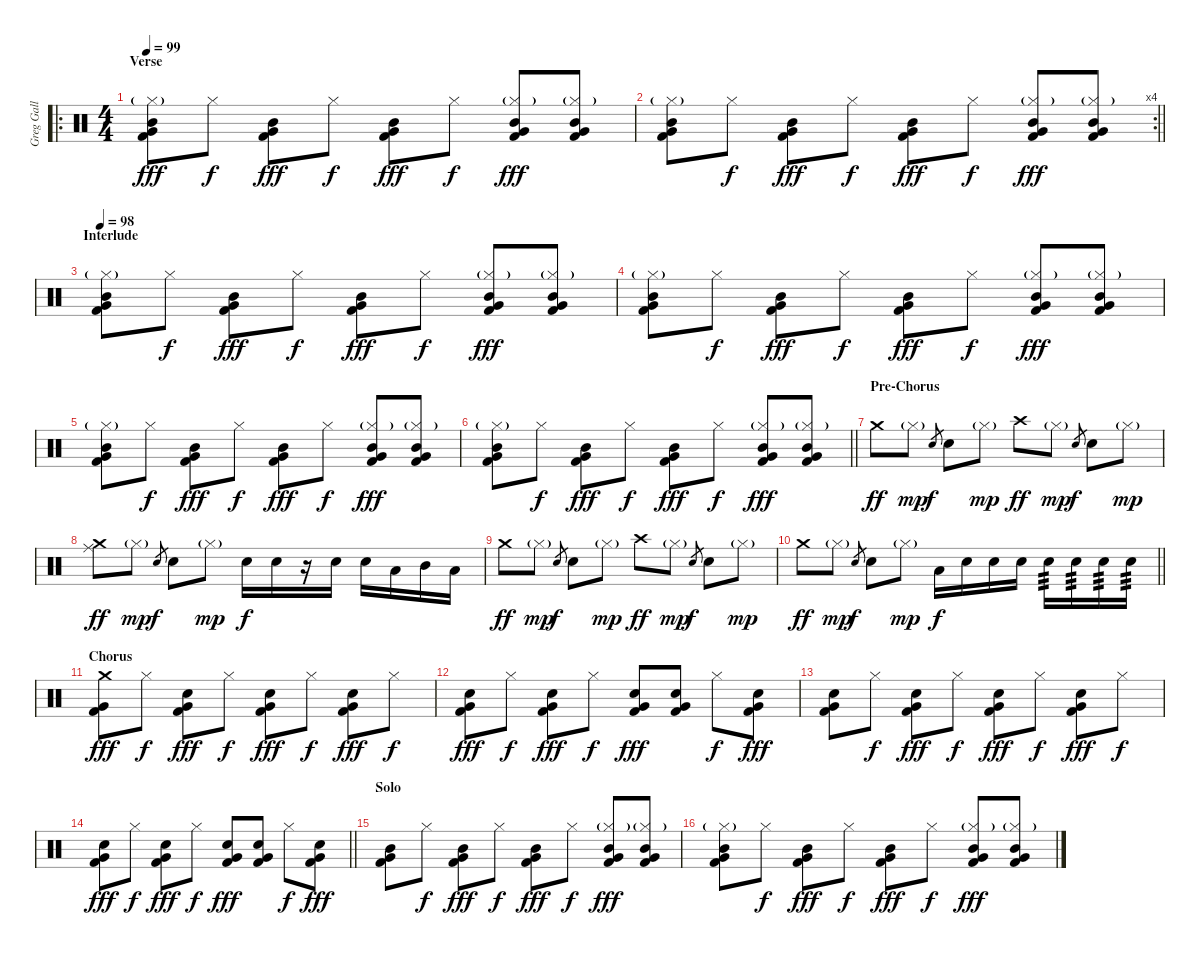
\track ("Greg Gall" "Greg Gall") {instrument percussion}
\staff {score}
\articulation defaults
\ro
\ts (4 4)
\section ("" "Verse")
\tempo 99
\clef neutral
\ks c
("Mid Tom (hit)" "Hi-Hat (closed)"{g} "Very Low Tom (hit)" "Kick (hit) 2").8{dy fff} "Hi-Hat (closed)".8{dy f} ("Mid Tom (hit)" "Very Low Tom (hit)" "Kick (hit) 2").8{dy fff} "Hi-Hat (closed)".8{dy f} ("Mid Tom (hit)" "Very Low Tom (hit)" "Kick (hit) 2").8{dy fff} "Hi-Hat (closed)".8{dy f} ("Mid Tom (hit)" "Hi-Hat (closed)"{g} "Very Low Tom (hit)" "Kick (hit) 2").8{dy fff} ("Mid Tom (hit)" "Hi-Hat (closed)"{g} "Very Low Tom (hit)" "Kick (hit) 2").8 |
\rc 4
\barLineRight lightlight
("Mid Tom (hit)" "Hi-Hat (closed)"{g} "Very Low Tom (hit)" "Kick (hit) 2").8 "Hi-Hat (closed)".8{dy f} ("Mid Tom (hit)" "Very Low Tom (hit)" "Kick (hit) 2").8{dy fff} "Hi-Hat (closed)".8{dy f} ("Mid Tom (hit)" "Very Low Tom (hit)" "Kick (hit) 2").8{dy fff} "Hi-Hat (closed)".8{dy f} ("Mid Tom (hit)" "Hi-Hat (closed)"{g} "Very Low Tom (hit)" "Kick (hit) 2").8{dy fff} ("Mid Tom (hit)" "Hi-Hat (closed)"{g} "Very Low Tom (hit)" "Kick (hit) 2").8 |
\section ("" "Interlude")
\tempo 98
("Mid Tom (hit)" "Hi-Hat (closed)"{g} "Very Low Tom (hit)" "Kick (hit) 2").8 "Hi-Hat (closed)".8{dy f} ("Mid Tom (hit)" "Very Low Tom (hit)" "Kick (hit) 2").8{dy fff} "Hi-Hat (closed)".8{dy f} ("Mid Tom (hit)" "Very Low Tom (hit)" "Kick (hit) 2").8{dy fff} "Hi-Hat (closed)".8{dy f} ("Mid Tom (hit)" "Hi-Hat (closed)"{g} "Very Low Tom (hit)" "Kick (hit) 2").8{dy fff} ("Mid Tom (hit)" "Hi-Hat (closed)"{g} "Very Low Tom (hit)" "Kick (hit) 2").8 |
("Mid Tom (hit)" "Hi-Hat (closed)"{g} "Very Low Tom (hit)" "Kick (hit) 2").8 "Hi-Hat (closed)".8{dy f} ("Mid Tom (hit)" "Very Low Tom (hit)" "Kick (hit) 2").8{dy fff} "Hi-Hat (closed)".8{dy f} ("Mid Tom (hit)" "Very Low Tom (hit)" "Kick (hit) 2").8{dy fff} "Hi-Hat (closed)".8{dy f} ("Mid Tom (hit)" "Hi-Hat (closed)"{g} "Very Low Tom (hit)" "Kick (hit) 2").8{dy fff} ("Mid Tom (hit)" "Hi-Hat (closed)"{g} "Very Low Tom (hit)" "Kick (hit) 2").8 |
("Mid Tom (hit)" "Hi-Hat (closed)"{g} "Very Low Tom (hit)" "Kick (hit) 2").8 "Hi-Hat (closed)".8{dy f} ("Mid Tom (hit)" "Very Low Tom (hit)" "Kick (hit) 2").8{dy fff} "Hi-Hat (closed)".8{dy f} ("Mid Tom (hit)" "Very Low Tom (hit)" "Kick (hit) 2").8{dy fff} "Hi-Hat (closed)".8{dy f} ("Mid Tom (hit)" "Hi-Hat (closed)"{g} "Very Low Tom (hit)" "Kick (hit) 2").8{dy fff} ("Mid Tom (hit)" "Hi-Hat (closed)"{g} "Very Low Tom (hit)" "Kick (hit) 2").8 |
\barLineRight lightlight
("Mid Tom (hit)" "Hi-Hat (closed)"{g} "Very Low Tom (hit)" "Kick (hit) 2").8 "Hi-Hat (closed)".8{dy f} ("Mid Tom (hit)" "Very Low Tom (hit)" "Kick (hit) 2").8{dy fff} "Hi-Hat (closed)".8{dy f} ("Mid Tom (hit)" "Very Low Tom (hit)" "Kick (hit) 2").8{dy fff} "Hi-Hat (closed)".8{dy f} ("Mid Tom (hit)" "Hi-Hat (closed)"{g} "Very Low Tom (hit)" "Kick (hit) 2").8{dy fff} ("Mid Tom (hit)" "Hi-Hat (closed)"{g} "Very Low Tom (hit)" "Kick (hit) 2").8 |
\section ("" "Pre-Chorus")
"Crash medium (hit)".8{dy ff} "Hi-Hat (closed)"{g}.8{dy mp} "Electric Snare (hit)".8{gr dy f} "Electric Snare (hit)".8 "Hi-Hat (closed)"{g}.8{dy mp} "Crash high (hit)".8{dy ff} "Hi-Hat (closed)"{g}.8{dy mp} "Electric Snare (hit)".8{gr dy f} "Electric Snare (hit)".8 "Hi-Hat (closed)"{g}.8{dy mp} |
("Ride (middle)" "Crash medium (hit)").8{dy ff} "Hi-Hat (closed)"{g}.8{dy mp} "Electric Snare (hit)".8{gr dy f} "Electric Snare (hit)".8 "Hi-Hat (closed)"{g}.8{dy mp} "Electric Snare (hit)".16{dy f} "Electric Snare (hit)".16 r.16 "Electric Snare (hit)".16 "Electric Snare (hit)".16 "Low Tom (hit)".16 "Mid Tom (hit)".16 "Low Tom (hit)".16 |
"Crash medium (hit)".8{dy ff} "Hi-Hat (closed)"{g}.8{dy mp} "Electric Snare (hit)".8{gr dy f} "Electric Snare (hit)".8 "Hi-Hat (closed)"{g}.8{dy mp} "Crash high (hit)".8{dy ff} "Hi-Hat (closed)"{g}.8{dy mp} "Electric Snare (hit)".8{gr dy f} "Electric Snare (hit)".8 "Hi-Hat (closed)"{g}.8{dy mp} |
\barLineRight lightlight "Crash medium (hit)".8{dy ff} "Hi-Hat (closed)"{g}.8{dy mp} "Electric Snare (hit)".8{gr dy f} "Electric Snare (hit)".8 "Hi-Hat (closed)"{g}.8{dy mp} "Low Tom (hit)".16{dy f} "Electric Snare (hit)".16 "Electric Snare (hit)".16 "Electric Snare (hit)".16 "Electric Snare (hit)".16{tp 3} "Electric Snare (hit)".16{tp 3} "Electric Snare (hit)".16{tp 3} "Electric Snare (hit)".16{tp 3}
|
\section ("" "Chorus")
("Crash medium (hit)" "Very Low Tom (hit)" "Kick (hit) 2").8{dy fff} "Hi-Hat (closed)".8{dy f} ("Electric Snare (hit)" "Very Low Tom (hit)" "Kick (hit) 2").8{dy fff} "Hi-Hat (closed)".8{dy f} ("Electric Snare (hit)" "Very Low Tom (hit)" "Kick (hit) 2").8{dy fff} "Hi-Hat (closed)".8{dy f} ("Electric Snare (hit)" "Very Low Tom (hit)" "Kick (hit) 2").8{dy fff} "Hi-Hat (closed)".8{dy f} |
("Electric Snare (hit)" "Very Low Tom (hit)" "Kick (hit) 2").8{dy fff} "Hi-Hat (closed)".8{dy f} ("Electric Snare (hit)" "Very Low Tom (hit)" "Kick (hit) 2").8{dy fff} "Hi-Hat (closed)".8{dy f} ("Electric Snare (hit)" "Very Low Tom (hit)" "Kick (hit) 2").8{dy fff} ("Electric Snare (hit)" "Very Low Tom (hit)" "Kick (hit) 2").8 "Hi-Hat (closed)".8{dy f} ("Electric Snare (hit)" "Very Low Tom (hit)" "Kick (hit) 2").8{dy fff} |
("Electric Snare (hit)" "Very Low Tom (hit)" "Kick (hit) 2").8 "Hi-Hat (closed)".8{dy f} ("Electric Snare (hit)" "Very Low Tom (hit)" "Kick (hit) 2").8{dy fff} "Hi-Hat (closed)".8{dy f} ("Electric Snare (hit)" "Very Low Tom (hit)" "Kick (hit) 2").8{dy fff} "Hi-Hat (closed)".8{dy f} ("Electric Snare (hit)" "Very Low Tom (hit)" "Kick (hit) 2").8{dy fff} "Hi-Hat (closed)".8{dy f} |
\barLineRight lightlight
("Electric Snare (hit)" "Very Low Tom (hit)" "Kick (hit) 2").8{dy fff} "Hi-Hat (closed)".8{dy f} ("Electric Snare (hit)" "Very Low Tom (hit)" "Kick (hit) 2").8{dy fff} "Hi-Hat (closed)".8{dy f} ("Electric Snare (hit)" "Very Low Tom (hit)" "Kick (hit) 2").8{dy fff} ("Electric Snare (hit)" "Very Low Tom (hit)" "Kick (hit) 2").8 "Hi-Hat (closed)".8{dy f} ("Electric Snare (hit)" "Very Low Tom (hit)" "Kick (hit) 2").8{dy fff} |
\section ("" "Solo")
("Mid Tom (hit)" "Very Low Tom (hit)" "Kick (hit) 2").8 "Hi-Hat (closed)".8{dy f} ("Mid Tom (hit)" "Very Low Tom (hit)" "Kick (hit) 2").8{dy fff} "Hi-Hat (closed)".8{dy f} ("Mid Tom (hit)" "Very Low Tom (hit)" "Kick (hit) 2").8{dy fff} "Hi-Hat (closed)".8{dy f} ("Mid Tom (hit)" "Hi-Hat (closed)"{g} "Very Low Tom (hit)" "Kick (hit) 2").8{dy fff} ("Mid Tom (hit)" "Hi-Hat (closed)"{g} "Very Low Tom (hit)" "Kick (hit) 2").8 |
("Mid Tom (hit)" "Hi-Hat (closed)"{g} "Very Low Tom (hit)" "Kick (hit) 2").8 "Hi-Hat (closed)".8{dy f} ("Mid Tom (hit)" "Very Low Tom (hit)" "Kick (hit) 2").8{dy fff} "Hi-Hat (closed)".8{dy f} ("Mid Tom (hit)" "Very Low Tom (hit)" "Kick (hit) 2").8{dy fff} "Hi-Hat (closed)".8{dy f} ("Mid Tom (hit)" "Hi-Hat (closed)"{g} "Very Low Tom (hit)" "Kick (hit) 2").8{dy fff} ("Mid Tom (hit)" "Hi-Hat (closed)"{g} "Very Low Tom (hit)" "Kick (hit) 2").8
